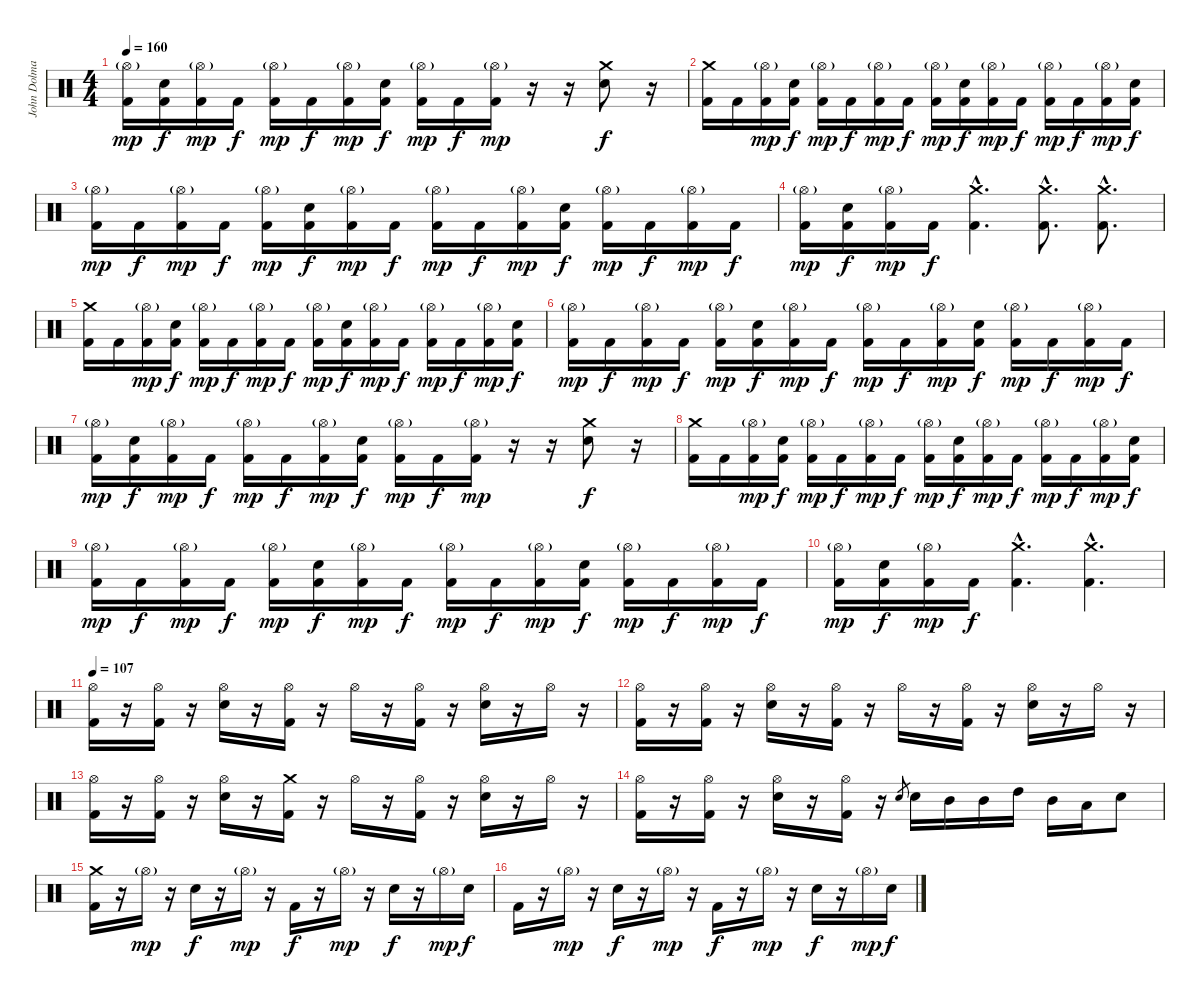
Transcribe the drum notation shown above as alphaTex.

\track ("John Dolmayan(Drums)" "John Dolma") {instrument percussion}
\staff {score}
\articulation defaults
\ts (4 4)
\tempo 160
\clef neutral
\ks c
("Hi-Hat (open)"{g} "Kick (hit) 2").16{dy mp} ("Electric Snare (hit)" "Kick (hit) 2").16{dy f} ("Hi-Hat (open)"{g} "Kick (hit) 2").16{dy mp} "Kick (hit) 2".16{dy f} ("Hi-Hat (open)"{g} "Kick (hit) 2").16{dy mp} "Kick (hit) 2".16{dy f} ("Hi-Hat (open)"{g} "Kick (hit) 2").16{dy mp} ("Electric Snare (hit)" "Kick (hit) 2").16{dy f} ("Hi-Hat (open)"{g} "Kick (hit) 2").16{dy mp} "Kick (hit) 2".16{dy f} ("Hi-Hat (open)"{g} "Kick (hit) 2").16{dy mp} r.16 r.16 ("Crash medium (hit)" "Electric Snare (hit)").8{dy f} r.16 |
("Crash medium (hit)" "Kick (hit) 2").16 "Kick (hit) 2".16 ("Hi-Hat (open)"{g} "Kick (hit) 2").16{dy mp} ("Electric Snare (hit)" "Kick (hit) 2").16{dy f} ("Hi-Hat (open)"{g} "Kick (hit) 2").16{dy mp} "Kick (hit) 2".16{dy f} ("Hi-Hat (open)"{g} "Kick (hit) 2").16{dy mp} "Kick (hit) 2".16{dy f} ("Hi-Hat (open)"{g} "Kick (hit) 2").16{dy mp} ("Electric Snare (hit)" "Kick (hit) 2").16{dy f} ("Hi-Hat (open)"{g} "Kick (hit) 2").16{dy mp} "Kick (hit) 2".16{dy f} ("Hi-Hat (open)"{g} "Kick (hit) 2").16{dy mp} "Kick (hit) 2".16{dy f} ("Hi-Hat (open)"{g} "Kick (hit) 2").16{dy mp} ("Electric Snare (hit)" "Kick (hit) 2").16{dy f} |
("Hi-Hat (open)"{g} "Kick (hit) 2").16{dy mp} "Kick (hit) 2".16{dy f} ("Hi-Hat (open)"{g} "Kick (hit) 2").16{dy mp} "Kick (hit) 2".16{dy f} ("Hi-Hat (open)"{g} "Kick (hit) 2").16{dy mp} ("Electric Snare (hit)" "Kick (hit) 2").16{dy f} ("Hi-Hat (open)"{g} "Kick (hit) 2").16{dy mp} "Kick (hit) 2".16{dy f} ("Hi-Hat (open)"{g} "Kick (hit) 2").16{dy mp} "Kick (hit) 2".16{dy f} ("Hi-Hat (open)"{g} "Kick (hit) 2").16{dy mp} ("Electric Snare (hit)" "Kick (hit) 2").16{dy f} ("Hi-Hat (open)"{g} "Kick (hit) 2").16{dy mp} "Kick (hit) 2".16{dy f} ("Hi-Hat (open)"{g} "Kick (hit) 2").16{dy mp} "Kick (hit) 2".16{dy f} |
("Hi-Hat (open)"{g} "Kick (hit) 2").16{dy mp} ("Electric Snare (hit)" "Kick (hit) 2").16{dy f} ("Hi-Hat (open)"{g} "Kick (hit) 2").16{dy mp} "Kick (hit) 2".16{dy f} ("Crash medium (hit)"{hac} "Kick (hit) 2"{hac}).4{d} ("Crash medium (hit)"{hac} "Kick (hit) 2"{hac}).8{d} ("Crash medium (hit)"{hac} "Kick (hit) 2"{hac}).8{d} |
("Crash medium (hit)" "Kick (hit) 2").16 "Kick (hit) 2".16 ("Hi-Hat (open)"{g} "Kick (hit) 2").16{dy mp} ("Electric Snare (hit)" "Kick (hit) 2").16{dy f} ("Hi-Hat (open)"{g} "Kick (hit) 2").16{dy mp} "Kick (hit) 2".16{dy f} ("Hi-Hat (open)"{g} "Kick (hit) 2").16{dy mp} "Kick (hit) 2".16{dy f} ("Hi-Hat (open)"{g} "Kick (hit) 2").16{dy mp} ("Electric Snare (hit)" "Kick (hit) 2").16{dy f} ("Hi-Hat (open)"{g} "Kick (hit) 2").16{dy mp} "Kick (hit) 2".16{dy f} ("Hi-Hat (open)"{g} "Kick (hit) 2").16{dy mp} "Kick (hit) 2".16{dy f} ("Hi-Hat (open)"{g} "Kick (hit) 2").16{dy mp} ("Electric Snare (hit)" "Kick (hit) 2").16{dy f} |
("Hi-Hat (open)"{g} "Kick (hit) 2").16{dy mp} "Kick (hit) 2".16{dy f} ("Hi-Hat (open)"{g} "Kick (hit) 2").16{dy mp} "Kick (hit) 2".16{dy f} ("Hi-Hat (open)"{g} "Kick (hit) 2").16{dy mp} ("Electric Snare (hit)" "Kick (hit) 2").16{dy f} ("Hi-Hat (open)"{g} "Kick (hit) 2").16{dy mp} "Kick (hit) 2".16{dy f} ("Hi-Hat (open)"{g} "Kick (hit) 2").16{dy mp} "Kick (hit) 2".16{dy f} ("Hi-Hat (open)"{g} "Kick (hit) 2").16{dy mp} ("Electric Snare (hit)" "Kick (hit) 2").16{dy f} ("Hi-Hat (open)"{g} "Kick (hit) 2").16{dy mp} "Kick (hit) 2".16{dy f} ("Hi-Hat (open)"{g} "Kick (hit) 2").16{dy mp} "Kick (hit) 2".16{dy f} |
("Hi-Hat (open)"{g} "Kick (hit) 2").16{dy mp} ("Electric Snare (hit)" "Kick (hit) 2").16{dy f} ("Hi-Hat (open)"{g} "Kick (hit) 2").16{dy mp} "Kick (hit) 2".16{dy f} ("Hi-Hat (open)"{g} "Kick (hit) 2").16{dy mp} "Kick (hit) 2".16{dy f} ("Hi-Hat (open)"{g} "Kick (hit) 2").16{dy mp} ("Electric Snare (hit)" "Kick (hit) 2").16{dy f} ("Hi-Hat (open)"{g} "Kick (hit) 2").16{dy mp} "Kick (hit) 2".16{dy f} ("Hi-Hat (open)"{g} "Kick (hit) 2").16{dy mp} r.16 r.16 ("Crash medium (hit)" "Electric Snare (hit)").8{dy f} r.16 |
("Crash medium (hit)" "Kick (hit) 2").16 "Kick (hit) 2".16 ("Hi-Hat (open)"{g} "Kick (hit) 2").16{dy mp} ("Electric Snare (hit)" "Kick (hit) 2").16{dy f} ("Hi-Hat (open)"{g} "Kick (hit) 2").16{dy mp} "Kick (hit) 2".16{dy f} ("Hi-Hat (open)"{g} "Kick (hit) 2").16{dy mp} "Kick (hit) 2".16{dy f} ("Hi-Hat (open)"{g} "Kick (hit) 2").16{dy mp} ("Electric Snare (hit)" "Kick (hit) 2").16{dy f} ("Hi-Hat (open)"{g} "Kick (hit) 2").16{dy mp} "Kick (hit) 2".16{dy f} ("Hi-Hat (open)"{g} "Kick (hit) 2").16{dy mp} "Kick (hit) 2".16{dy f} ("Hi-Hat (open)"{g} "Kick (hit) 2").16{dy mp} ("Electric Snare (hit)" "Kick (hit) 2").16{dy f} |
("Hi-Hat (open)"{g} "Kick (hit) 2").16{dy mp} "Kick (hit) 2".16{dy f} ("Hi-Hat (open)"{g} "Kick (hit) 2").16{dy mp} "Kick (hit) 2".16{dy f} ("Hi-Hat (open)"{g} "Kick (hit) 2").16{dy mp} ("Electric Snare (hit)" "Kick (hit) 2").16{dy f} ("Hi-Hat (open)"{g} "Kick (hit) 2").16{dy mp} "Kick (hit) 2".16{dy f} ("Hi-Hat (open)"{g} "Kick (hit) 2").16{dy mp} "Kick (hit) 2".16{dy f} ("Hi-Hat (open)"{g} "Kick (hit) 2").16{dy mp} ("Electric Snare (hit)" "Kick (hit) 2").16{dy f} ("Hi-Hat (open)"{g} "Kick (hit) 2").16{dy mp} "Kick (hit) 2".16{dy f} ("Hi-Hat (open)"{g} "Kick (hit) 2").16{dy mp} "Kick (hit) 2".16{dy f} |
("Hi-Hat (open)"{g} "Kick (hit) 2").16{dy mp} ("Electric Snare (hit)" "Kick (hit) 2").16{dy f} ("Hi-Hat (open)"{g} "Kick (hit) 2").16{dy mp} "Kick (hit) 2".16{dy f} ("Crash medium (hit)"{hac} "Kick (hit) 2"{hac}).4{d} ("Crash medium (hit)"{hac} "Kick (hit) 2"{hac}).4{d} |
\tempo 107
("Hi-Hat (open)" "Kick (hit) 2").16 r.16 ("Hi-Hat (open)" "Kick (hit) 2").16 r.16 ("Hi-Hat (open)" "Electric Snare (hit)").16 r.16 ("Hi-Hat (open)" "Kick (hit) 2").16 r.16 "Hi-Hat (open)".16 r.16 ("Hi-Hat (open)" "Kick (hit) 2").16 r.16 ("Hi-Hat (open)" "Electric Snare (hit)").16 r.16 "Hi-Hat (open)".16 r.16 |
("Hi-Hat (open)" "Kick (hit) 2").16 r.16 ("Hi-Hat (open)" "Kick (hit) 2").16 r.16 ("Hi-Hat (open)" "Electric Snare (hit)").16 r.16 ("Hi-Hat (open)" "Kick (hit) 2").16 r.16 "Hi-Hat (open)".16 r.16 ("Hi-Hat (open)" "Kick (hit) 2").16 r.16 ("Hi-Hat (open)" "Electric Snare (hit)").16 r.16 "Hi-Hat (open)".16 r.16 |
("Hi-Hat (open)" "Kick (hit) 2").16 r.16 ("Hi-Hat (open)" "Kick (hit) 2").16 r.16 ("Hi-Hat (open)" "Electric Snare (hit)").16 r.16 ("Crash medium (hit)" "Kick (hit) 2").16 r.16 "Hi-Hat (open)".16 r.16 ("Hi-Hat (open)" "Kick (hit) 2").16 r.16 ("Hi-Hat (open)" "Electric Snare (hit)").16 r.16 "Hi-Hat (open)".16 r.16 |
("Hi-Hat (open)" "Kick (hit) 2").16 r.16 ("Hi-Hat (open)" "Kick (hit) 2").16 r.16 ("Hi-Hat (open)" "Electric Snare (hit)").16 r.16 ("Hi-Hat (open)" "Kick (hit) 2").16 r.16 "Electric Snare (hit)".8{gr} "Electric Snare (hit)".16 "Mid Tom (hit)".16 "Mid Tom (hit)".16 "High Tom (hit)".16 "Mid Tom (hit)".16 "Low Tom (hit)".16 "Electric Snare (hit)".8 |
("Crash medium (hit)" "Kick (hit) 2").16 r.16 "Hi-Hat (open)"{g}.16{dy mp} r.16 "Electric Snare (hit)".16{dy f} r.16 "Hi-Hat (open)"{g}.16{dy mp} r.16 "Kick (hit) 2".16{dy f} r.16 "Hi-Hat (open)"{g}.16{dy mp} r.16 "Electric Snare (hit)".16{dy f} r.16 "Hi-Hat (open)"{g}.16{dy mp} "Electric Snare (hit)".16{dy f} |
"Kick (hit) 2".16 r.16 "Hi-Hat (open)"{g}.16{dy mp} r.16 "Electric Snare (hit)".16{dy f} r.16 "Hi-Hat (open)"{g}.16{dy mp} r.16 "Kick (hit) 2".16{dy f} r.16 "Hi-Hat (open)"{g}.16{dy mp} r.16 "Electric Snare (hit)".16{dy f} r.16 "Hi-Hat (open)"{g}.16{dy mp} "Electric Snare (hit)".16{dy f}
